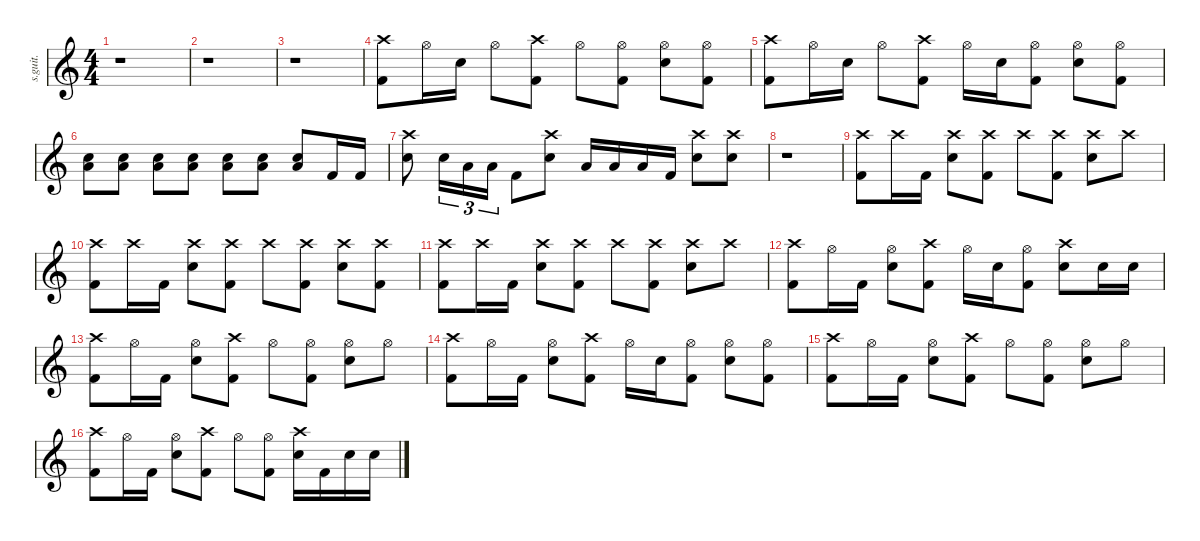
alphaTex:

\defaultSystemsLayout 4
\hideDynamics
\bracketExtendMode nobrackets
\track ("" "s.guit.") {instrument percussion}
\staff {score}
\articulation defaults
\ts (4 4)
\tempo (95 hide)
\clef g2
\ks c
r.1{dy f} |
r.1 |
r.1 |
("Crash high (hit)" "Kick (hit) 2").8 "Hi-Hat (open)".16 "Snare (hit) 2".16 "Hi-Hat (open)".8 ("Crash high (hit)" "Kick (hit) 2").8 "Hi-Hat (open)".8 ("Hi-Hat (open)" "Kick (hit) 2").8 ("Hi-Hat (open)" "Snare (hit) 2").8 ("Hi-Hat (open)" "Kick (hit) 2").8 |
("Crash high (hit)" "Kick (hit) 2").8 "Hi-Hat (open)".16 "Snare (hit) 2".16 "Hi-Hat (open)".8 ("Crash high (hit)" "Kick (hit) 2").8 "Hi-Hat (open)".16 "Snare (hit) 2".16 ("Hi-Hat (open)" "Kick (hit) 2").8 ("Hi-Hat (open)" "Snare (hit) 2").8 ("Hi-Hat (open)" "Kick (hit) 2").8 |
("Snare (hit) 2" "Low Floor Tom (hit)").8 ("Snare (hit) 2" "Low Floor Tom (hit)").8 ("Snare (hit) 2" "Low Floor Tom (hit)").8 ("Snare (hit) 2" "Low Floor Tom (hit)").8 ("Snare (hit) 2" "Low Floor Tom (hit)").8 ("Snare (hit) 2" "Low Floor Tom (hit)").8 ("Snare (hit) 2" "Low Floor Tom (hit)").8 "Kick (hit) 2".16 "Kick (hit) 2".16 |
("Crash high (hit)" "Snare (hit) 2").8 "Snare (hit) 2".16{tu (3 2)} "Low Tom (hit)".16{tu (3 2)} "Low Floor Tom (hit)".16{tu (3 2)} "Kick (hit) 2".8 ("Crash high (hit)" "Snare (hit) 2").8 "Low Tom (hit)".16 "Low Tom (hit)".16 "Low Floor Tom (hit)".16 "Kick (hit) 2".16 ("Crash high (hit)" "Snare (hit) 2").8 ("Crash high (hit)" "Snare (hit) 2").8 |
r.1 |
("Crash high (hit)" "Kick (hit) 2").8 "Crash high (hit)".16 "Kick (hit) 2".16 ("Crash high (hit)" "Snare (hit) 2").8 ("Crash high (hit)" "Kick (hit) 2").8 "Crash high (hit)".8 ("Crash high (hit)" "Kick (hit) 2").8 ("Crash high (hit)" "Snare (hit) 2").8 "Crash high (hit)".8 |
("Crash high (hit)" "Kick (hit) 2").8 "Crash high (hit)".16 "Kick (hit) 2".16 ("Crash high (hit)" "Snare (hit) 2").8 ("Crash high (hit)" "Kick (hit) 2").8 "Crash high (hit)".8 ("Crash high (hit)" "Kick (hit) 2").8 ("Crash high (hit)" "Snare (hit) 2").8 ("Crash high (hit)" "Kick (hit) 2").8 |
("Crash high (hit)" "Kick (hit) 2").8 "Crash high (hit)".16 "Kick (hit) 2".16 ("Crash high (hit)" "Snare (hit) 2").8 ("Crash high (hit)" "Kick (hit) 2").8 "Crash high (hit)".8 ("Crash high (hit)" "Kick (hit) 2").8 ("Crash high (hit)" "Snare (hit) 2").8 "Crash high (hit)".8 |
("Crash high (hit)" "Kick (hit) 2").8 "Hi-Hat (open)".16 "Kick (hit) 2".16 ("Hi-Hat (open)" "Snare (hit) 2").8 ("Crash high (hit)" "Kick (hit) 2").8 "Hi-Hat (open)".16 "Snare (hit) 2".16 ("Hi-Hat (open)" "Kick (hit) 2").8 ("Crash high (hit)" "Snare (hit) 2").8 "Snare (hit) 2".16 "Snare (hit) 2".16 |
("Crash high (hit)" "Kick (hit) 2").8 "Hi-Hat (open)".16 "Kick (hit) 2".16 ("Hi-Hat (open)" "Snare (hit) 2").8 ("Crash high (hit)" "Kick (hit) 2").8 "Hi-Hat (open)".8 ("Hi-Hat (open)" "Kick (hit) 2").8 ("Hi-Hat (open)" "Snare (hit) 2").8 "Hi-Hat (open)".8 |
("Crash high (hit)" "Kick (hit) 2").8 "Hi-Hat (open)".16 "Kick (hit) 2".16 ("Hi-Hat (open)" "Snare (hit) 2").8 ("Crash high (hit)" "Kick (hit) 2").8 "Hi-Hat (open)".16 "Snare (hit) 2".16 ("Hi-Hat (open)" "Kick (hit) 2").8 ("Hi-Hat (open)" "Snare (hit) 2").8 ("Hi-Hat (open)" "Kick (hit) 2").8 |
("Crash high (hit)" "Kick (hit) 2").8 "Hi-Hat (open)".16 "Kick (hit) 2".16 ("Hi-Hat (open)" "Snare (hit) 2").8 ("Crash high (hit)" "Kick (hit) 2").8 "Hi-Hat (open)".8 ("Hi-Hat (open)" "Kick (hit) 2").8 ("Hi-Hat (open)" "Snare (hit) 2").8 "Hi-Hat (open)".8 |
("Crash high (hit)" "Kick (hit) 2").8 "Hi-Hat (open)".16 "Kick (hit) 2".16 ("Hi-Hat (open)" "Snare (hit) 2").8 ("Crash high (hit)" "Kick (hit) 2").8 "Hi-Hat (open)".8 ("Hi-Hat (open)" "Kick (hit) 2").8 ("Crash high (hit)" "Snare (hit) 2").16 "Kick (hit) 2".16 "Snare (hit) 2".16 "Snare (hit) 2".16
